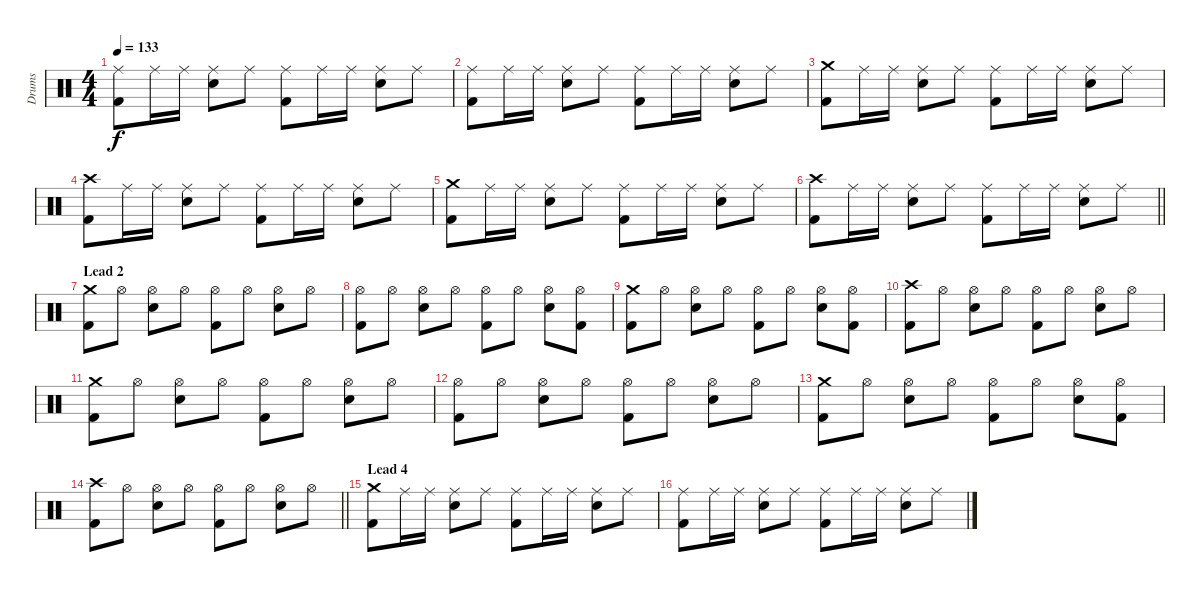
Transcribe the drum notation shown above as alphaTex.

\track ("Drums" "Drums") {instrument percussion}
\staff {score}
\articulation defaults
\ts (4 4)
\tempo 133
\clef neutral
\ks c
("Ride (middle)" "Kick (hit) 2").8{dy f} "Ride (middle)".16 "Ride (middle)".16 ("Ride (middle)" "Snare (hit) 2").8 "Ride (middle)".8 ("Ride (middle)" "Kick (hit) 2").8 "Ride (middle)".16 "Ride (middle)".16 ("Ride (middle)" "Snare (hit) 2").8 "Ride (middle)".8 |
("Ride (middle)" "Kick (hit) 2").8 "Ride (middle)".16 "Ride (middle)".16 ("Ride (middle)" "Snare (hit) 2").8 "Ride (middle)".8 ("Ride (middle)" "Kick (hit) 2").8 "Ride (middle)".16 "Ride (middle)".16 ("Ride (middle)" "Snare (hit) 2").8 "Ride (middle)".8 |
("Crash medium (hit)" "Kick (hit) 2").8 "Ride (middle)".16 "Ride (middle)".16 ("Ride (middle)" "Snare (hit) 2").8 "Ride (middle)".8 ("Ride (middle)" "Kick (hit) 2").8 "Ride (middle)".16 "Ride (middle)".16 ("Ride (middle)" "Snare (hit) 2").8 "Ride (middle)".8 |
("Crash high (hit)" "Kick (hit) 2").8 "Ride (middle)".16 "Ride (middle)".16 ("Ride (middle)" "Snare (hit) 2").8 "Ride (middle)".8 ("Ride (middle)" "Kick (hit) 2").8 "Ride (middle)".16 "Ride (middle)".16 ("Ride (middle)" "Snare (hit) 2").8 "Ride (middle)".8 |
("Crash medium (hit)" "Kick (hit) 2").8 "Ride (middle)".16 "Ride (middle)".16 ("Ride (middle)" "Snare (hit) 2").8 "Ride (middle)".8 ("Ride (middle)" "Kick (hit) 2").8 "Ride (middle)".16 "Ride (middle)".16 ("Ride (middle)" "Snare (hit) 2").8 "Ride (middle)".8 |
\barLineRight lightlight
("Crash high (hit)" "Kick (hit) 2").8 "Ride (middle)".16 "Ride (middle)".16 ("Ride (middle)" "Snare (hit) 2").8 "Ride (middle)".8 ("Ride (middle)" "Kick (hit) 2").8 "Ride (middle)".16 "Ride (middle)".16 ("Ride (middle)" "Snare (hit) 2").8 "Ride (middle)".8 |
\section ("" "Lead 2")
("Crash medium (hit)" "Kick (hit) 2").8 "Hi-Hat (open)".8 ("Hi-Hat (open)" "Snare (hit) 2").8 "Hi-Hat (open)".8 ("Hi-Hat (open)" "Kick (hit) 2").8 "Hi-Hat (open)".8 ("Hi-Hat (open)" "Snare (hit) 2").8 "Hi-Hat (open)".8 |
("Hi-Hat (open)" "Kick (hit) 2").8 "Hi-Hat (open)".8 ("Hi-Hat (open)" "Snare (hit) 2").8 "Hi-Hat (open)".8 ("Hi-Hat (open)" "Kick (hit) 2").8 "Hi-Hat (open)".8 ("Hi-Hat (open)" "Snare (hit) 2").8 ("Hi-Hat (open)" "Kick (hit) 2").8 |
("Crash medium (hit)" "Kick (hit) 2").8 "Hi-Hat (open)".8 ("Hi-Hat (open)" "Snare (hit) 2").8 "Hi-Hat (open)".8 ("Hi-Hat (open)" "Kick (hit) 2").8 "Hi-Hat (open)".8 ("Hi-Hat (open)" "Snare (hit) 2").8 ("Hi-Hat (open)" "Kick (hit) 2").8 |
("Crash high (hit)" "Kick (hit) 2").8 "Hi-Hat (open)".8 ("Hi-Hat (open)" "Snare (hit) 2").8 "Hi-Hat (open)".8 ("Hi-Hat (open)" "Kick (hit) 2").8 "Hi-Hat (open)".8 ("Hi-Hat (open)" "Snare (hit) 2").8 "Hi-Hat (open)".8 |
("Crash medium (hit)" "Kick (hit) 2").8 "Hi-Hat (open)".8 ("Hi-Hat (open)" "Snare (hit) 2").8 "Hi-Hat (open)".8 ("Hi-Hat (open)" "Kick (hit) 2").8 "Hi-Hat (open)".8 ("Hi-Hat (open)" "Snare (hit) 2").8 "Hi-Hat (open)".8 |
("Hi-Hat (open)" "Kick (hit) 2").8 "Hi-Hat (open)".8 ("Hi-Hat (open)" "Snare (hit) 2").8 "Hi-Hat (open)".8 ("Hi-Hat (open)" "Kick (hit) 2").8 "Hi-Hat (open)".8 ("Hi-Hat (open)" "Snare (hit) 2").8 "Hi-Hat (open)".8 |
("Crash medium (hit)" "Kick (hit) 2").8 "Hi-Hat (open)".8 ("Hi-Hat (open)" "Snare (hit) 2").8 "Hi-Hat (open)".8 ("Hi-Hat (open)" "Kick (hit) 2").8 "Hi-Hat (open)".8 ("Hi-Hat (open)" "Snare (hit) 2").8 ("Hi-Hat (open)" "Kick (hit) 2").8 |
\barLineRight lightlight
("Crash high (hit)" "Kick (hit) 2").8 "Hi-Hat (open)".8 ("Hi-Hat (open)" "Snare (hit) 2").8 "Hi-Hat (open)".8 ("Hi-Hat (open)" "Kick (hit) 2").8 "Hi-Hat (open)".8 ("Hi-Hat (open)" "Snare (hit) 2").8 "Hi-Hat (open)".8 |
\section ("" "Lead 4")
("Crash medium (hit)" "Kick (hit) 2").8 "Ride (middle)".16 "Ride (middle)".16 ("Ride (middle)" "Snare (hit) 2").8 "Ride (middle)".8 ("Ride (middle)" "Kick (hit) 2").8 "Ride (middle)".16 "Ride (middle)".16 ("Ride (middle)" "Snare (hit) 2").8 "Ride (middle)".8 |
("Ride (middle)" "Kick (hit) 2").8 "Ride (middle)".16 "Ride (middle)".16 ("Ride (middle)" "Snare (hit) 2").8 "Ride (middle)".8 ("Ride (middle)" "Kick (hit) 2").8 "Ride (middle)".16 "Ride (middle)".16 ("Ride (middle)" "Snare (hit) 2").8 "Ride (middle)".8
